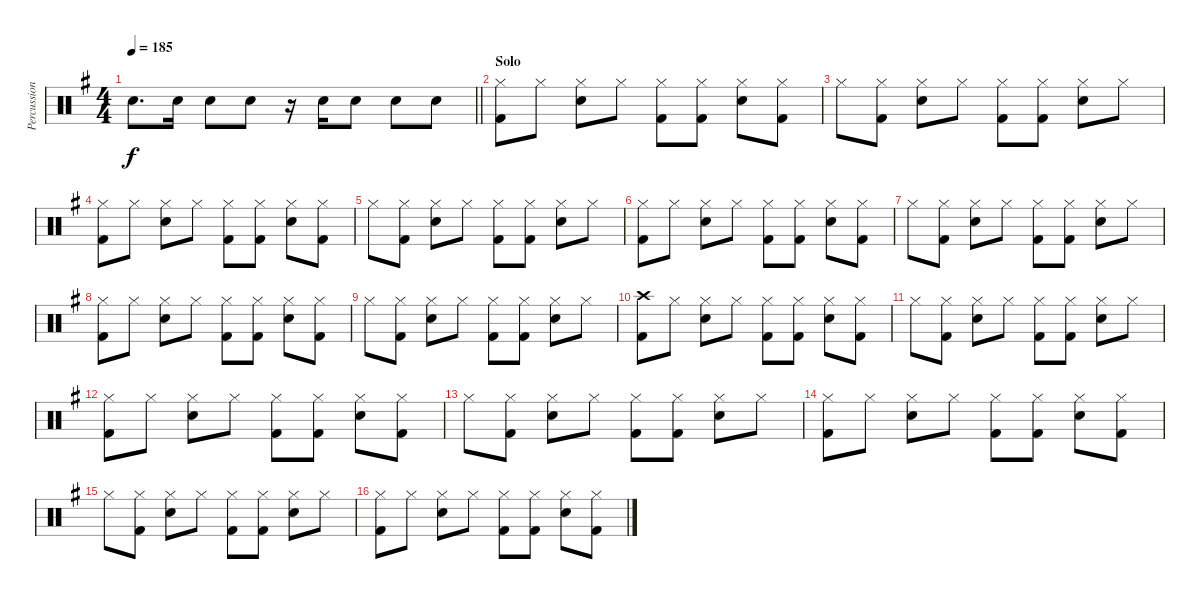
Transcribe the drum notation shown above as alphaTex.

\track ("Percussion" "Percussion") {instrument percussion}
\staff {score}
\articulation defaults
\ts (4 4)
\tempo 185
\clef neutral
\barLineRight lightlight
\ks g "Snare (hit) 2".8{d dy f} "Snare (hit) 2".16 "Snare (hit) 2".8 "Snare (hit) 2".8
r.16 "Snare (hit) 2".16 "Snare (hit) 2".8 "Snare (hit) 2".8 "Snare (hit) 2".8 |
\section ("" "Solo")
("Hi-Hat (closed)" "Kick (hit) 2").8 "Hi-Hat (closed)".8 ("Hi-Hat (closed)" "Snare (hit) 2").8 "Hi-Hat (closed)".8 ("Hi-Hat (closed)" "Kick (hit) 2").8 ("Hi-Hat (closed)" "Kick (hit) 2").8 ("Hi-Hat (closed)" "Snare (hit) 2").8 ("Hi-Hat (closed)" "Kick (hit) 2").8 |
"Hi-Hat (closed)".8 ("Hi-Hat (closed)" "Kick (hit) 2").8 ("Hi-Hat (closed)" "Snare (hit) 2").8 "Hi-Hat (closed)".8 ("Hi-Hat (closed)" "Kick (hit) 2").8 ("Hi-Hat (closed)" "Kick (hit) 2").8 ("Hi-Hat (closed)" "Snare (hit) 2").8 "Hi-Hat (closed)".8 |
("Hi-Hat (closed)" "Kick (hit) 2").8 "Hi-Hat (closed)".8 ("Hi-Hat (closed)" "Snare (hit) 2").8 "Hi-Hat (closed)".8 ("Hi-Hat (closed)" "Kick (hit) 2").8 ("Hi-Hat (closed)" "Kick (hit) 2").8 ("Hi-Hat (closed)" "Snare (hit) 2").8 ("Hi-Hat (closed)" "Kick (hit) 2").8 |
"Hi-Hat (closed)".8 ("Hi-Hat (closed)" "Kick (hit) 2").8 ("Hi-Hat (closed)" "Snare (hit) 2").8 "Hi-Hat (closed)".8 ("Hi-Hat (closed)" "Kick (hit) 2").8 ("Hi-Hat (closed)" "Kick (hit) 2").8 ("Hi-Hat (closed)" "Snare (hit) 2").8 "Hi-Hat (closed)".8 |
("Hi-Hat (closed)" "Kick (hit) 2").8 "Hi-Hat (closed)".8 ("Hi-Hat (closed)" "Snare (hit) 2").8 "Hi-Hat (closed)".8 ("Hi-Hat (closed)" "Kick (hit) 2").8 ("Hi-Hat (closed)" "Kick (hit) 2").8 ("Hi-Hat (closed)" "Snare (hit) 2").8 ("Hi-Hat (closed)" "Kick (hit) 2").8 |
"Hi-Hat (closed)".8 ("Hi-Hat (closed)" "Kick (hit) 2").8 ("Hi-Hat (closed)" "Snare (hit) 2").8 "Hi-Hat (closed)".8 ("Hi-Hat (closed)" "Kick (hit) 2").8 ("Hi-Hat (closed)" "Kick (hit) 2").8 ("Hi-Hat (closed)" "Snare (hit) 2").8 "Hi-Hat (closed)".8 |
("Hi-Hat (closed)" "Kick (hit) 2").8 "Hi-Hat (closed)".8 ("Hi-Hat (closed)" "Snare (hit) 2").8 "Hi-Hat (closed)".8 ("Hi-Hat (closed)" "Kick (hit) 2").8 ("Hi-Hat (closed)" "Kick (hit) 2").8 ("Hi-Hat (closed)" "Snare (hit) 2").8 ("Hi-Hat (closed)" "Kick (hit) 2").8 |
"Hi-Hat (closed)".8 ("Hi-Hat (closed)" "Kick (hit) 2").8 ("Hi-Hat (closed)" "Snare (hit) 2").8 "Hi-Hat (closed)".8 ("Hi-Hat (closed)" "Kick (hit) 2").8 ("Hi-Hat (closed)" "Kick (hit) 2").8 ("Hi-Hat (closed)" "Snare (hit) 2").8 "Hi-Hat (closed)".8 |
("Crash high (hit)" "Kick (hit) 2").8 "Hi-Hat (closed)".8 ("Hi-Hat (closed)" "Snare (hit) 2").8 "Hi-Hat (closed)".8 ("Hi-Hat (closed)" "Kick (hit) 2").8 ("Hi-Hat (closed)" "Kick (hit) 2").8 ("Hi-Hat (closed)" "Snare (hit) 2").8 ("Hi-Hat (closed)" "Kick (hit) 2").8 |
"Hi-Hat (closed)".8 ("Hi-Hat (closed)" "Kick (hit) 2").8 ("Hi-Hat (closed)" "Snare (hit) 2").8 "Hi-Hat (closed)".8 ("Hi-Hat (closed)" "Kick (hit) 2").8 ("Hi-Hat (closed)" "Kick (hit) 2").8 ("Hi-Hat (closed)" "Snare (hit) 2").8 "Hi-Hat (closed)".8 |
("Hi-Hat (closed)" "Kick (hit) 2").8 "Hi-Hat (closed)".8 ("Hi-Hat (closed)" "Snare (hit) 2").8 "Hi-Hat (closed)".8 ("Hi-Hat (closed)" "Kick (hit) 2").8 ("Hi-Hat (closed)" "Kick (hit) 2").8 ("Hi-Hat (closed)" "Snare (hit) 2").8 ("Hi-Hat (closed)" "Kick (hit) 2").8 |
"Hi-Hat (closed)".8 ("Hi-Hat (closed)" "Kick (hit) 2").8 ("Hi-Hat (closed)" "Snare (hit) 2").8 "Hi-Hat (closed)".8 ("Hi-Hat (closed)" "Kick (hit) 2").8 ("Hi-Hat (closed)" "Kick (hit) 2").8 ("Hi-Hat (closed)" "Snare (hit) 2").8 "Hi-Hat (closed)".8 |
("Hi-Hat (closed)" "Kick (hit) 2").8 "Hi-Hat (closed)".8 ("Hi-Hat (closed)" "Snare (hit) 2").8 "Hi-Hat (closed)".8 ("Hi-Hat (closed)" "Kick (hit) 2").8 ("Hi-Hat (closed)" "Kick (hit) 2").8 ("Hi-Hat (closed)" "Snare (hit) 2").8 ("Hi-Hat (closed)" "Kick (hit) 2").8 |
"Hi-Hat (closed)".8 ("Hi-Hat (closed)" "Kick (hit) 2").8 ("Hi-Hat (closed)" "Snare (hit) 2").8 "Hi-Hat (closed)".8 ("Hi-Hat (closed)" "Kick (hit) 2").8 ("Hi-Hat (closed)" "Kick (hit) 2").8 ("Hi-Hat (closed)" "Snare (hit) 2").8 "Hi-Hat (closed)".8 |
("Hi-Hat (closed)" "Kick (hit) 2").8 "Hi-Hat (closed)".8 ("Hi-Hat (closed)" "Snare (hit) 2").8 "Hi-Hat (closed)".8 ("Hi-Hat (closed)" "Kick (hit) 2").8 ("Hi-Hat (closed)" "Kick (hit) 2").8 ("Hi-Hat (closed)" "Snare (hit) 2").8 ("Hi-Hat (closed)" "Kick (hit) 2").8
